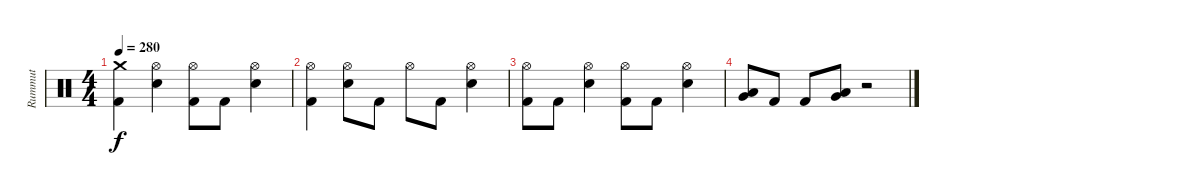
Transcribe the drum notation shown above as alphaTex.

\track ("Rummut" "Rummut") {instrument percussion}
\staff {score}
\articulation defaults
\ts (4 4)
\tempo 280
\clef neutral
\ks c
("Crash medium (hit)" "Kick (hit) 2").4{dy f} ("Hi-Hat (open)" "Snare (hit) 2").4 ("Hi-Hat (open)" "Kick (hit) 2").8 "Kick (hit) 2".8 ("Hi-Hat (open)" "Snare (hit) 2").4 |
("Hi-Hat (open)" "Kick (hit) 2").4 ("Hi-Hat (open)" "Snare (hit) 2").8 "Kick (hit) 2".8 "Hi-Hat (open)".8 "Kick (hit) 2".8 ("Hi-Hat (open)" "Snare (hit) 2").4 |
("Hi-Hat (open)" "Kick (hit) 2").8 "Kick (hit) 2".8 ("Hi-Hat (open)" "Snare (hit) 2").4 ("Hi-Hat (open)" "Kick (hit) 2").8 "Kick (hit) 2".8 ("Hi-Hat (open)" "Snare (hit) 2").4 |
("Low Tom (hit)" "Very Low Tom (hit)").8 "Kick (hit) 2".8 "Kick (hit) 2".8 ("Low Tom (hit)" "Very Low Tom (hit)").8 r.2
